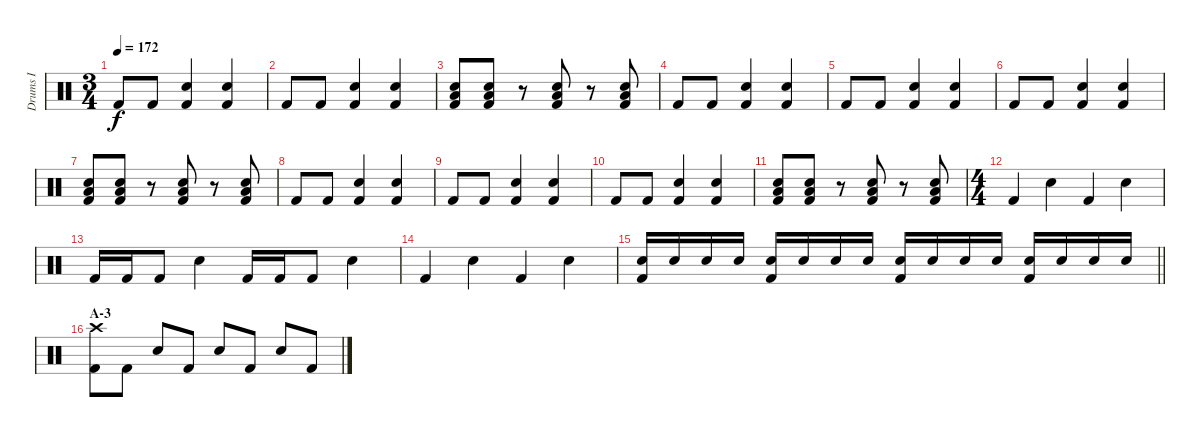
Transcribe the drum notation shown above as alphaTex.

\track ("Drums I" "Drums I") {instrument percussion}
\staff {score}
\articulation defaults
\ts (3 4)
\tempo 172
\clef neutral
\ks c "Kick (hit) 2".8{dy f} "Kick (hit) 2".8
("Electric Snare (hit)" "Kick (hit) 2").4 ("Electric Snare (hit)" "Kick (hit) 2").4 |
"Kick (hit) 2".8 "Kick (hit) 2".8 ("Electric Snare (hit)" "Kick (hit) 2").4 ("Electric Snare (hit)" "Kick (hit) 2").4 |
("Electric Snare (hit)" "Low Floor Tom (hit)" "Kick (hit) 2").8 ("Electric Snare (hit)" "Low Floor Tom (hit)" "Kick (hit) 2").8 r.8 ("Electric Snare (hit)" "Low Floor Tom (hit)" "Kick (hit) 2").8 r.8 ("Electric Snare (hit)" "Low Floor Tom (hit)" "Kick (hit) 2").8 |
"Kick (hit) 2".8 "Kick (hit) 2".8 ("Electric Snare (hit)" "Kick (hit) 2").4 ("Electric Snare (hit)" "Kick (hit) 2").4 |
"Kick (hit) 2".8 "Kick (hit) 2".8 ("Electric Snare (hit)" "Kick (hit) 2").4 ("Electric Snare (hit)" "Kick (hit) 2").4 |
"Kick (hit) 2".8 "Kick (hit) 2".8 ("Electric Snare (hit)" "Kick (hit) 2").4 ("Electric Snare (hit)" "Kick (hit) 2").4 |
("Electric Snare (hit)" "Low Floor Tom (hit)" "Kick (hit) 2").8 ("Electric Snare (hit)" "Low Floor Tom (hit)" "Kick (hit) 2").8 r.8 ("Electric Snare (hit)" "Low Floor Tom (hit)" "Kick (hit) 2").8 r.8 ("Electric Snare (hit)" "Low Floor Tom (hit)" "Kick (hit) 2").8 |
"Kick (hit) 2".8 "Kick (hit) 2".8 ("Electric Snare (hit)" "Kick (hit) 2").4 ("Electric Snare (hit)" "Kick (hit) 2").4 |
"Kick (hit) 2".8 "Kick (hit) 2".8 ("Electric Snare (hit)" "Kick (hit) 2").4 ("Electric Snare (hit)" "Kick (hit) 2").4 |
"Kick (hit) 2".8 "Kick (hit) 2".8 ("Electric Snare (hit)" "Kick (hit) 2").4 ("Electric Snare (hit)" "Kick (hit) 2").4 |
("Electric Snare (hit)" "Low Floor Tom (hit)" "Kick (hit) 2").8 ("Electric Snare (hit)" "Low Floor Tom (hit)" "Kick (hit) 2").8 r.8 ("Electric Snare (hit)" "Low Floor Tom (hit)" "Kick (hit) 2").8 r.8 ("Electric Snare (hit)" "Low Floor Tom (hit)" "Kick (hit) 2").8 |
\ts (4 4)
"Kick (hit) 2".4 "Electric Snare (hit)".4 "Kick (hit) 2".4 "Electric Snare (hit)".4 |
"Kick (hit) 2".16 "Kick (hit) 2".16 "Kick (hit) 2".8 "Electric Snare (hit)".4 "Kick (hit) 2".16 "Kick (hit) 2".16 "Kick (hit) 2".8 "Electric Snare (hit)".4 |
"Kick (hit) 2".4 "Electric Snare (hit)".4 "Kick (hit) 2".4 "Electric Snare (hit)".4 |
\barLineRight lightlight
("Electric Snare (hit)" "Kick (hit) 2").16 "Electric Snare (hit)".16 "Electric Snare (hit)".16 "Electric Snare (hit)".16 ("Electric Snare (hit)" "Kick (hit) 2").16 "Electric Snare (hit)".16 "Electric Snare (hit)".16 "Electric Snare (hit)".16 ("Electric Snare (hit)" "Kick (hit) 2").16 "Electric Snare (hit)".16 "Electric Snare (hit)".16 "Electric Snare (hit)".16 ("Electric Snare (hit)" "Kick (hit) 2").16 "Electric Snare (hit)".16 "Electric Snare (hit)".16 "Electric Snare (hit)".16 |
\section ("" "A-3")
("Crash high (hit)" "Kick (hit) 2").8 "Kick (hit) 2".8 "Electric Snare (hit)".8 "Kick (hit) 2".8 "Electric Snare (hit)".8 "Kick (hit) 2".8 "Electric Snare (hit)".8 "Kick (hit) 2".8
